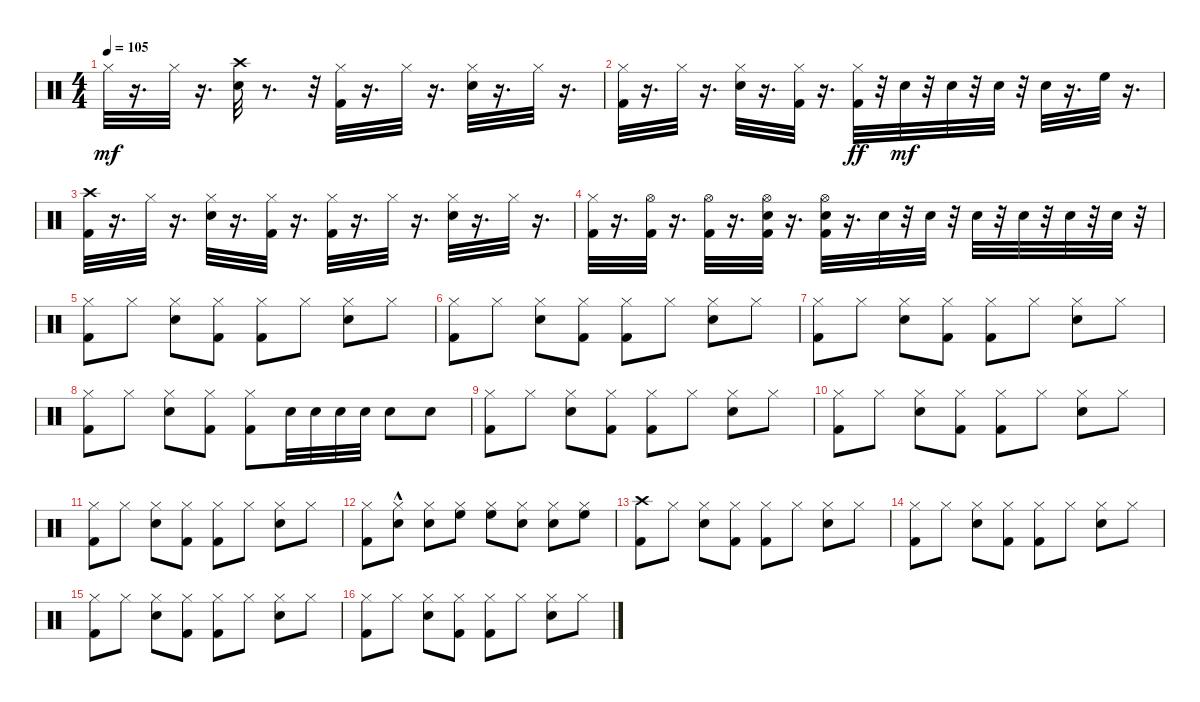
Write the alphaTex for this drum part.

\track "" {instrument percussion}
\staff {score}
\articulation defaults
\ts (4 4)
\tempo 105
\clef neutral
\ks c "Hi-Hat (closed)".32{dy mf}
r.16{d} "Hi-Hat (closed)".32 r.16{d} ("Snare (hit) 2" "Crash high (hit)").32 r.8{d} r.32 ("Kick (hit) 2" "Hi-Hat (closed)").32 r.16{d} "Hi-Hat (closed)".32 r.16{d} ("Snare (hit) 2" "Hi-Hat (closed)").32 r.16{d} "Hi-Hat (closed)".32 r.16{d} |
("Kick (hit) 2" "Hi-Hat (closed)").32 r.16{d} "Hi-Hat (closed)".32 r.16{d} ("Snare (hit) 2" "Hi-Hat (closed)").32 r.16{d} ("Kick (hit) 2" "Hi-Hat (closed)").32 r.16{d} ("Kick (hit) 2" "Hi-Hat (closed)").32{dy ff} r.32 "Snare (hit) 2".32{dy mf} r.32 "Snare (hit) 2".32 r.32 "Snare (hit) 2".32 r.32 "Snare (hit) 2".32 r.16{d} "High Floor Tom (hit)".32 r.16{d} |
("Kick (hit) 2" "Crash high (hit)").32 r.16{d} "Hi-Hat (closed)".32 r.16{d} ("Snare (hit) 2" "Hi-Hat (closed)").32 r.16{d} ("Kick (hit) 2" "Hi-Hat (closed)").32 r.16{d} ("Kick (hit) 2" "Hi-Hat (closed)").32 r.16{d} "Hi-Hat (closed)".32 r.16{d} ("Snare (hit) 2" "Hi-Hat (closed)").32 r.16{d} "Hi-Hat (closed)".32 r.16{d} |
("Kick (hit) 2" "Hi-Hat (closed)").32 r.16{d} ("Kick (hit) 2" "Hi-Hat (open)").32 r.16{d} ("Kick (hit) 2" "Hi-Hat (open)").32 r.16{d} ("Kick (hit) 2" "Snare (hit) 2" "Hi-Hat (open)").32 r.16{d} ("Snare (hit) 2" "Kick (hit) 2" "Hi-Hat (open)").32 r.16{d} "Snare (hit) 2".32 r.32 "Snare (hit) 2".32 r.32 "Snare (hit) 2".32 r.32 "Snare (hit) 2".32 r.32 "Snare (hit) 2".32 r.32 "Snare (hit) 2".32 r.32 |
("Kick (hit) 2" "Hi-Hat (closed)").8 "Hi-Hat (closed)".8 ("Snare (hit) 2" "Hi-Hat (closed)").8 ("Kick (hit) 2" "Hi-Hat (closed)").8 ("Kick (hit) 2" "Hi-Hat (closed)").8 "Hi-Hat (closed)".8 ("Snare (hit) 2" "Hi-Hat (closed)").8 "Hi-Hat (closed)".8 |
("Kick (hit) 2" "Hi-Hat (closed)").8 "Hi-Hat (closed)".8 ("Snare (hit) 2" "Hi-Hat (closed)").8 ("Kick (hit) 2" "Hi-Hat (closed)").8 ("Kick (hit) 2" "Hi-Hat (closed)").8 "Hi-Hat (closed)".8 ("Snare (hit) 2" "Hi-Hat (closed)").8 "Hi-Hat (closed)".8 |
("Kick (hit) 2" "Hi-Hat (closed)").8 "Hi-Hat (closed)".8 ("Snare (hit) 2" "Hi-Hat (closed)").8 ("Kick (hit) 2" "Hi-Hat (closed)").8 ("Kick (hit) 2" "Hi-Hat (closed)").8 "Hi-Hat (closed)".8 ("Snare (hit) 2" "Hi-Hat (closed)").8 "Hi-Hat (closed)".8 |
("Kick (hit) 2" "Hi-Hat (closed)").8 "Hi-Hat (closed)".8 ("Snare (hit) 2" "Hi-Hat (closed)").8 ("Kick (hit) 2" "Hi-Hat (closed)").8 ("Kick (hit) 2" "Hi-Hat (closed)").8 "Snare (hit) 2".32 "Snare (hit) 2".32 "Snare (hit) 2".32 "Snare (hit) 2".32 "Snare (hit) 2".8 "Snare (hit) 2".8 |
("Kick (hit) 2" "Hi-Hat (closed)").8 "Hi-Hat (closed)".8 ("Snare (hit) 2" "Hi-Hat (closed)").8 ("Kick (hit) 2" "Hi-Hat (closed)").8 ("Kick (hit) 2" "Hi-Hat (closed)").8 "Hi-Hat (closed)".8 ("Snare (hit) 2" "Hi-Hat (closed)").8 "Hi-Hat (closed)".8 |
("Kick (hit) 2" "Hi-Hat (closed)").8 "Hi-Hat (closed)".8 ("Snare (hit) 2" "Hi-Hat (closed)").8 ("Kick (hit) 2" "Hi-Hat (closed)").8 ("Kick (hit) 2" "Hi-Hat (closed)").8 "Hi-Hat (closed)".8 ("Snare (hit) 2" "Hi-Hat (closed)").8 "Hi-Hat (closed)".8 |
("Kick (hit) 2" "Hi-Hat (closed)").8 "Hi-Hat (closed)".8 ("Snare (hit) 2" "Hi-Hat (closed)").8 ("Kick (hit) 2" "Hi-Hat (closed)").8 ("Kick (hit) 2" "Hi-Hat (closed)").8 "Hi-Hat (closed)".8 ("Snare (hit) 2" "Hi-Hat (closed)").8 "Hi-Hat (closed)".8 |
("Kick (hit) 2" "Hi-Hat (closed)").8 ("Snare (hit) 2"{hac} "Hi-Hat (closed)").8 ("Snare (hit) 2" "Hi-Hat (closed)").8 ("Hi-Hat (closed)" "High Floor Tom (hit)").8 ("Hi-Hat (closed)" "High Floor Tom (hit)").8 ("Snare (hit) 2" "Hi-Hat (closed)").8 ("Snare (hit) 2" "Hi-Hat (closed)").8 ("Hi-Hat (closed)" "High Floor Tom (hit)").8 |
("Kick (hit) 2" "Crash high (hit)").8 "Hi-Hat (closed)".8 ("Snare (hit) 2" "Hi-Hat (closed)").8 ("Kick (hit) 2" "Hi-Hat (closed)").8 ("Kick (hit) 2" "Hi-Hat (closed)").8 "Hi-Hat (closed)".8 ("Snare (hit) 2" "Hi-Hat (closed)").8 "Hi-Hat (closed)".8 |
("Kick (hit) 2" "Hi-Hat (closed)").8 "Hi-Hat (closed)".8 ("Snare (hit) 2" "Hi-Hat (closed)").8 ("Kick (hit) 2" "Hi-Hat (closed)").8 ("Kick (hit) 2" "Hi-Hat (closed)").8 "Hi-Hat (closed)".8 ("Snare (hit) 2" "Hi-Hat (closed)").8 "Hi-Hat (closed)".8 |
("Kick (hit) 2" "Hi-Hat (closed)").8 "Hi-Hat (closed)".8 ("Snare (hit) 2" "Hi-Hat (closed)").8 ("Kick (hit) 2" "Hi-Hat (closed)").8 ("Kick (hit) 2" "Hi-Hat (closed)").8 "Hi-Hat (closed)".8 ("Snare (hit) 2" "Hi-Hat (closed)").8 "Hi-Hat (closed)".8 |
("Kick (hit) 2" "Hi-Hat (closed)").8 "Hi-Hat (closed)".8 ("Snare (hit) 2" "Hi-Hat (closed)").8 ("Kick (hit) 2" "Hi-Hat (closed)").8 ("Kick (hit) 2" "Hi-Hat (closed)").8 "Hi-Hat (closed)".8 ("Snare (hit) 2" "Hi-Hat (closed)").8 "Hi-Hat (closed)".8
